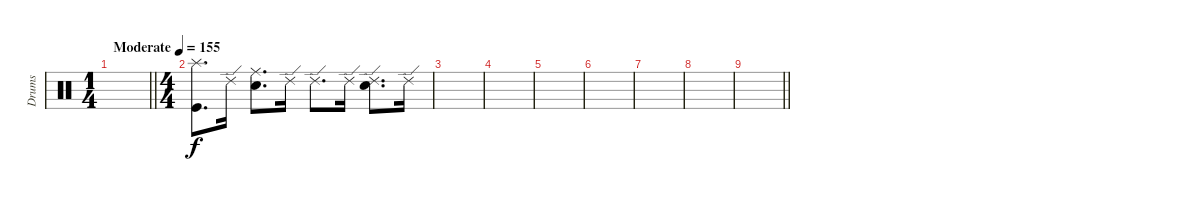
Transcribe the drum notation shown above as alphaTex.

\track ("Drums" "Drums") {instrument percussion}
\staff
\articulation defaults
\ts (1 4)
\tempo (155 "Moderate")
\clef neutral
\barLineRight lightlight
\ks c
|
\ts (4 4)
("Splash (hit)" "Kick (hit)").8{d} "Ride (edge) 2".16 ("Ride (middle)" "Electric Snare (hit)").8{d} "Ride (edge) 2".16 "Ride (edge) 2".8{d} "Ride (edge) 2".16 ("Ride (edge) 2" "Electric Snare (hit)").8{d} "Ride (edge) 2".16 |
|
|
|
|
|
|
\barLineRight lightlight
